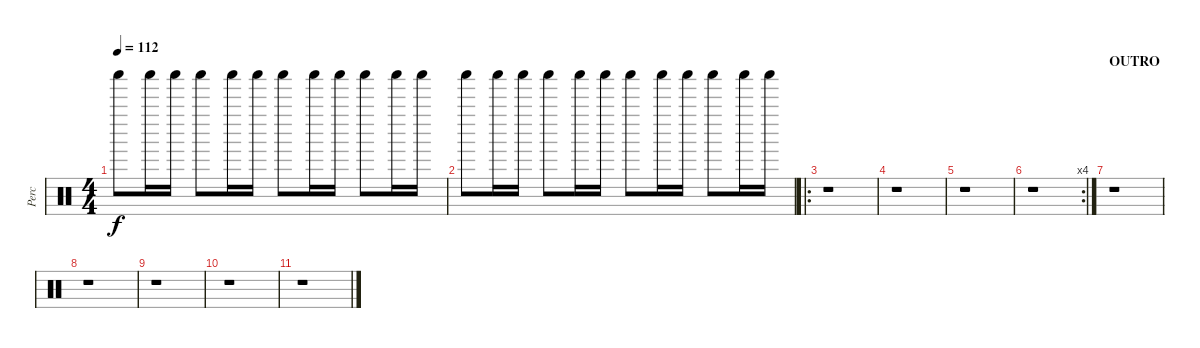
\track ("Perc" "Perc") {instrument percussion}
\staff {score}
\articulation defaults
\ts (4 4)
\tempo 112
\clef neutral
\ks c "Shaker (hit)".8{dy f} "Shaker (hit)".16 "Shaker (hit)".16 "Shaker (hit)".8 "Shaker (hit)".16 "Shaker (hit)".16 "Shaker (hit)".8 "Shaker (hit)".16 "Shaker (hit)".16 "Shaker (hit)".8 "Shaker (hit)".16 "Shaker (hit)".16
|
"Shaker (hit)".8 "Shaker (hit)".16 "Shaker (hit)".16 "Shaker (hit)".8 "Shaker (hit)".16 "Shaker (hit)".16 "Shaker (hit)".8 "Shaker (hit)".16 "Shaker (hit)".16 "Shaker (hit)".8 "Shaker (hit)".16 "Shaker (hit)".16 |
\ro
r.1 |
r.1 |
r.1 |
\rc 4
r.1 |
\section ("" "OUTRO")
r.1 |
r.1 |
r.1 |
r.1 |
r.1
